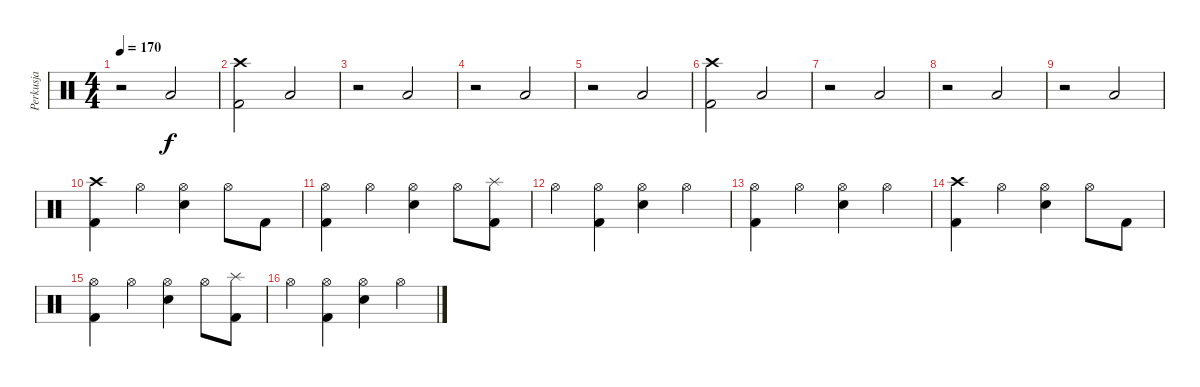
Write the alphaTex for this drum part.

\track ("Perkusja" "Perkusja") {instrument percussion}
\staff {score}
\articulation defaults
\ts (4 4)
\tempo 170
\clef neutral
\ks c
r.2{dy f} "Low Floor Tom (hit)".2 |
("Crash high (hit)" "Kick (hit) 2").2 "Low Floor Tom (hit)".2 |
r.2 "Low Floor Tom (hit)".2 |
r.2 "Low Floor Tom (hit)".2 |
r.2 "Low Floor Tom (hit)".2 |
("Crash high (hit)" "Kick (hit) 2").2 "Low Floor Tom (hit)".2 |
r.2 "Low Floor Tom (hit)".2 |
r.2 "Low Floor Tom (hit)".2 |
r.2 "Low Floor Tom (hit)".2 |
("Crash high (hit)" "Kick (hit) 2").4 "Hi-Hat (open)".4 ("Hi-Hat (open)" "Electric Snare (hit)").4 "Hi-Hat (open)".8 "Kick (hit) 2".8 |
("Hi-Hat (open)" "Kick (hit) 2").4 "Hi-Hat (open)".4 ("Hi-Hat (open)" "Electric Snare (hit)").4 "Hi-Hat (open)".8 ("Splash (hit)" "Kick (hit) 2").8 |
"Hi-Hat (open)".4 ("Hi-Hat (open)" "Kick (hit) 2").4 ("Hi-Hat (open)" "Electric Snare (hit)").4 "Hi-Hat (open)".4 |
("Hi-Hat (open)" "Kick (hit) 2").4 "Hi-Hat (open)".4 ("Hi-Hat (open)" "Electric Snare (hit)").4 "Hi-Hat (open)".4 |
("Crash high (hit)" "Kick (hit) 2").4 "Hi-Hat (open)".4 ("Hi-Hat (open)" "Electric Snare (hit)").4 "Hi-Hat (open)".8 "Kick (hit) 2".8 |
("Hi-Hat (open)" "Kick (hit) 2").4 "Hi-Hat (open)".4 ("Hi-Hat (open)" "Electric Snare (hit)").4 "Hi-Hat (open)".8 ("Splash (hit)" "Kick (hit) 2").8 |
"Hi-Hat (open)".4 ("Hi-Hat (open)" "Kick (hit) 2").4 ("Hi-Hat (open)" "Electric Snare (hit)").4 "Hi-Hat (open)".4
